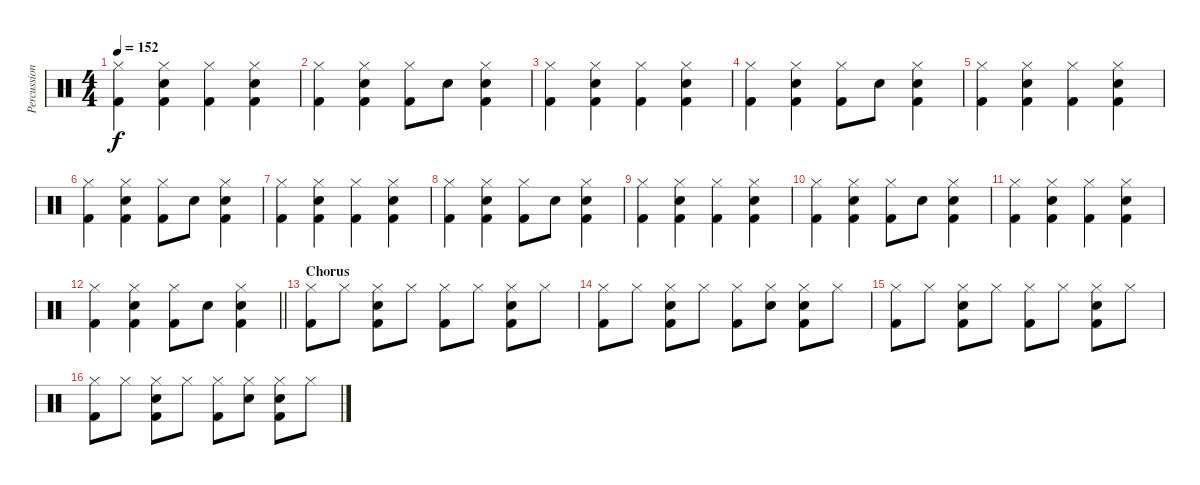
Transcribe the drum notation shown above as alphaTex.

\track ("Percussion" "Percussion") {instrument percussion}
\staff {score}
\articulation defaults
\ts (4 4)
\tempo 152
\clef neutral
\ks c
("Hi-Hat (closed)" "Kick (hit) 2").4{dy f} ("Hi-Hat (closed)" "Electric Snare (hit)" "Kick (hit) 2").4 ("Hi-Hat (closed)" "Kick (hit) 2").4 ("Hi-Hat (closed)" "Electric Snare (hit)" "Kick (hit) 2").4 |
("Hi-Hat (closed)" "Kick (hit) 2").4 ("Hi-Hat (closed)" "Electric Snare (hit)" "Kick (hit) 2").4 ("Hi-Hat (closed)" "Kick (hit) 2").8 "Electric Snare (hit)".8 ("Hi-Hat (closed)" "Electric Snare (hit)" "Kick (hit) 2").4 |
("Hi-Hat (closed)" "Kick (hit) 2").4 ("Hi-Hat (closed)" "Electric Snare (hit)" "Kick (hit) 2").4 ("Hi-Hat (closed)" "Kick (hit) 2").4 ("Hi-Hat (closed)" "Electric Snare (hit)" "Kick (hit) 2").4 |
("Hi-Hat (closed)" "Kick (hit) 2").4 ("Hi-Hat (closed)" "Electric Snare (hit)" "Kick (hit) 2").4 ("Hi-Hat (closed)" "Kick (hit) 2").8 "Electric Snare (hit)".8 ("Hi-Hat (closed)" "Electric Snare (hit)" "Kick (hit) 2").4 |
("Hi-Hat (closed)" "Kick (hit) 2").4 ("Hi-Hat (closed)" "Electric Snare (hit)" "Kick (hit) 2").4 ("Hi-Hat (closed)" "Kick (hit) 2").4 ("Hi-Hat (closed)" "Electric Snare (hit)" "Kick (hit) 2").4 |
("Hi-Hat (closed)" "Kick (hit) 2").4 ("Hi-Hat (closed)" "Electric Snare (hit)" "Kick (hit) 2").4 ("Hi-Hat (closed)" "Kick (hit) 2").8 "Electric Snare (hit)".8 ("Hi-Hat (closed)" "Electric Snare (hit)" "Kick (hit) 2").4 |
("Hi-Hat (closed)" "Kick (hit) 2").4 ("Hi-Hat (closed)" "Electric Snare (hit)" "Kick (hit) 2").4 ("Hi-Hat (closed)" "Kick (hit) 2").4 ("Hi-Hat (closed)" "Electric Snare (hit)" "Kick (hit) 2").4 |
("Hi-Hat (closed)" "Kick (hit) 2").4 ("Hi-Hat (closed)" "Electric Snare (hit)" "Kick (hit) 2").4 ("Hi-Hat (closed)" "Kick (hit) 2").8 "Electric Snare (hit)".8 ("Hi-Hat (closed)" "Electric Snare (hit)" "Kick (hit) 2").4 |
("Hi-Hat (closed)" "Kick (hit) 2").4 ("Hi-Hat (closed)" "Electric Snare (hit)" "Kick (hit) 2").4 ("Hi-Hat (closed)" "Kick (hit) 2").4 ("Hi-Hat (closed)" "Electric Snare (hit)" "Kick (hit) 2").4 |
("Hi-Hat (closed)" "Kick (hit) 2").4 ("Hi-Hat (closed)" "Electric Snare (hit)" "Kick (hit) 2").4 ("Hi-Hat (closed)" "Kick (hit) 2").8 "Electric Snare (hit)".8 ("Hi-Hat (closed)" "Electric Snare (hit)" "Kick (hit) 2").4 |
("Hi-Hat (closed)" "Kick (hit) 2").4 ("Hi-Hat (closed)" "Electric Snare (hit)" "Kick (hit) 2").4 ("Hi-Hat (closed)" "Kick (hit) 2").4 ("Hi-Hat (closed)" "Electric Snare (hit)" "Kick (hit) 2").4 |
\barLineRight lightlight
("Hi-Hat (closed)" "Kick (hit) 2").4 ("Hi-Hat (closed)" "Electric Snare (hit)" "Kick (hit) 2").4 ("Hi-Hat (closed)" "Kick (hit) 2").8 "Electric Snare (hit)".8 ("Hi-Hat (closed)" "Electric Snare (hit)" "Kick (hit) 2").4 |
\section ("" "Chorus")
("Hi-Hat (closed)" "Kick (hit) 2").8 "Hi-Hat (closed)".8 ("Hi-Hat (closed)" "Electric Snare (hit)" "Kick (hit) 2").8 "Hi-Hat (closed)".8 ("Hi-Hat (closed)" "Kick (hit) 2").8 "Hi-Hat (closed)".8 ("Hi-Hat (closed)" "Electric Snare (hit)" "Kick (hit) 2").8 "Hi-Hat (closed)".8 |
("Hi-Hat (closed)" "Kick (hit) 2").8 "Hi-Hat (closed)".8 ("Hi-Hat (closed)" "Electric Snare (hit)" "Kick (hit) 2").8 "Hi-Hat (closed)".8 ("Hi-Hat (closed)" "Kick (hit) 2").8 ("Hi-Hat (closed)" "Electric Snare (hit)").8 ("Hi-Hat (closed)" "Electric Snare (hit)" "Kick (hit) 2").8 "Hi-Hat (closed)".8 |
("Hi-Hat (closed)" "Kick (hit) 2").8 "Hi-Hat (closed)".8 ("Hi-Hat (closed)" "Electric Snare (hit)" "Kick (hit) 2").8 "Hi-Hat (closed)".8 ("Hi-Hat (closed)" "Kick (hit) 2").8 "Hi-Hat (closed)".8 ("Hi-Hat (closed)" "Electric Snare (hit)" "Kick (hit) 2").8 "Hi-Hat (closed)".8 |
("Hi-Hat (closed)" "Kick (hit) 2").8 "Hi-Hat (closed)".8 ("Hi-Hat (closed)" "Electric Snare (hit)" "Kick (hit) 2").8 "Hi-Hat (closed)".8 ("Hi-Hat (closed)" "Kick (hit) 2").8 ("Hi-Hat (closed)" "Electric Snare (hit)").8 ("Hi-Hat (closed)" "Electric Snare (hit)" "Kick (hit) 2").8 "Hi-Hat (closed)".8
